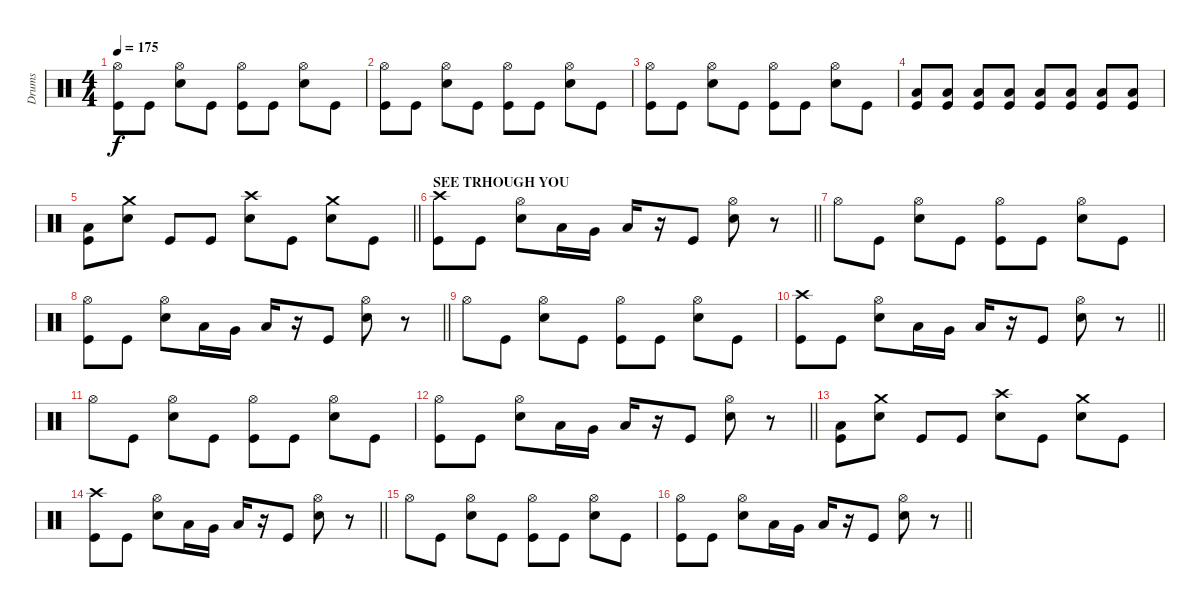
\track ("Drums" "Drums") {instrument percussion}
\staff {score}
\articulation defaults
\ts (4 4)
\tempo 175
\clef neutral
\ks c
("Hi-Hat (open)" "Kick (hit)").8{dy f} "Kick (hit)".8 ("Hi-Hat (open)" "Snare (hit) 2").8 "Kick (hit)".8 ("Hi-Hat (open)" "Kick (hit)").8 "Kick (hit)".8 ("Hi-Hat (open)" "Snare (hit) 2").8 "Kick (hit)".8 |
("Hi-Hat (open)" "Kick (hit)").8 "Kick (hit)".8 ("Hi-Hat (open)" "Snare (hit) 2").8 "Kick (hit)".8 ("Hi-Hat (open)" "Kick (hit)").8 "Kick (hit)".8 ("Hi-Hat (open)" "Snare (hit) 2").8 "Kick (hit)".8 |
("Hi-Hat (open)" "Kick (hit)").8 "Kick (hit)".8 ("Hi-Hat (open)" "Snare (hit) 2").8 "Kick (hit)".8 ("Hi-Hat (open)" "Kick (hit)").8 "Kick (hit)".8 ("Hi-Hat (open)" "Snare (hit) 2").8 "Kick (hit)".8 |
("Low Floor Tom (hit)" "Kick (hit)").8 ("Low Floor Tom (hit)" "Kick (hit)").8 ("Low Floor Tom (hit)" "Kick (hit)").8 ("Low Floor Tom (hit)" "Kick (hit)").8 ("Low Floor Tom (hit)" "Kick (hit)").8 ("Low Floor Tom (hit)" "Kick (hit)").8 ("Low Floor Tom (hit)" "Kick (hit)").8 ("Low Floor Tom (hit)" "Kick (hit)").8 |
\barLineRight lightlight
("Low Floor Tom (hit)" "Kick (hit)").8 ("Crash medium (hit)" "Snare (hit) 2").8 "Kick (hit)".8 "Kick (hit)".8 ("Crash high (hit)" "Snare (hit) 2").8 "Kick (hit)".8 ("Crash medium (hit)" "Snare (hit) 2").8 "Kick (hit)".8 |
\section ("" "SEE TRHOUGH YOU")
\barLineRight lightlight
("Crash high (hit)" "Kick (hit)").8 "Kick (hit)".8 ("Hi-Hat (open)" "Snare (hit) 2").8 "Low Tom (hit)".16 "Very Low Tom (hit)".16 "Low Floor Tom (hit)".16 r.16 "Kick (hit)".8 ("Hi-Hat (open)" "Snare (hit) 2").8 r.8 |
"Hi-Hat (open)".8 "Kick (hit)".8 ("Hi-Hat (open)" "Snare (hit) 2").8 "Kick (hit)".8 ("Hi-Hat (open)" "Kick (hit)").8 "Kick (hit)".8 ("Hi-Hat (open)" "Snare (hit) 2").8 "Kick (hit)".8 |
\barLineRight lightlight
("Hi-Hat (open)" "Kick (hit)").8 "Kick (hit)".8 ("Hi-Hat (open)" "Snare (hit) 2").8 "Low Tom (hit)".16 "Very Low Tom (hit)".16 "Low Floor Tom (hit)".16 r.16 "Kick (hit)".8 ("Hi-Hat (open)" "Snare (hit) 2").8 r.8 |
"Hi-Hat (open)".8 "Kick (hit)".8 ("Hi-Hat (open)" "Snare (hit) 2").8 "Kick (hit)".8 ("Hi-Hat (open)" "Kick (hit)").8 "Kick (hit)".8 ("Hi-Hat (open)" "Snare (hit) 2").8 "Kick (hit)".8 |
\barLineRight lightlight
("Crash high (hit)" "Kick (hit)").8 "Kick (hit)".8 ("Hi-Hat (open)" "Snare (hit) 2").8 "Low Tom (hit)".16 "Very Low Tom (hit)".16 "Low Floor Tom (hit)".16 r.16 "Kick (hit)".8 ("Hi-Hat (open)" "Snare (hit) 2").8 r.8 |
"Hi-Hat (open)".8 "Kick (hit)".8 ("Hi-Hat (open)" "Snare (hit) 2").8 "Kick (hit)".8 ("Hi-Hat (open)" "Kick (hit)").8 "Kick (hit)".8 ("Hi-Hat (open)" "Snare (hit) 2").8 "Kick (hit)".8 |
\barLineRight lightlight
("Hi-Hat (open)" "Kick (hit)").8 "Kick (hit)".8 ("Hi-Hat (open)" "Snare (hit) 2").8 "Low Tom (hit)".16 "Very Low Tom (hit)".16 "Low Floor Tom (hit)".16 r.16 "Kick (hit)".8 ("Hi-Hat (open)" "Snare (hit) 2").8 r.8 |
("Low Floor Tom (hit)" "Kick (hit)").8 ("Crash medium (hit)" "Snare (hit) 2").8 "Kick (hit)".8 "Kick (hit)".8 ("Crash high (hit)" "Snare (hit) 2").8 "Kick (hit)".8 ("Crash medium (hit)" "Snare (hit) 2").8 "Kick (hit)".8 |
\barLineRight lightlight
("Crash high (hit)" "Kick (hit)").8 "Kick (hit)".8 ("Hi-Hat (open)" "Snare (hit) 2").8 "Low Tom (hit)".16 "Very Low Tom (hit)".16 "Low Floor Tom (hit)".16 r.16 "Kick (hit)".8 ("Hi-Hat (open)" "Snare (hit) 2").8 r.8 |
"Hi-Hat (open)".8 "Kick (hit)".8 ("Hi-Hat (open)" "Snare (hit) 2").8 "Kick (hit)".8 ("Hi-Hat (open)" "Kick (hit)").8 "Kick (hit)".8 ("Hi-Hat (open)" "Snare (hit) 2").8 "Kick (hit)".8 |
\barLineRight lightlight
("Hi-Hat (open)" "Kick (hit)").8 "Kick (hit)".8 ("Hi-Hat (open)" "Snare (hit) 2").8 "Low Tom (hit)".16 "Very Low Tom (hit)".16 "Low Floor Tom (hit)".16 r.16 "Kick (hit)".8 ("Hi-Hat (open)" "Snare (hit) 2").8 r.8
